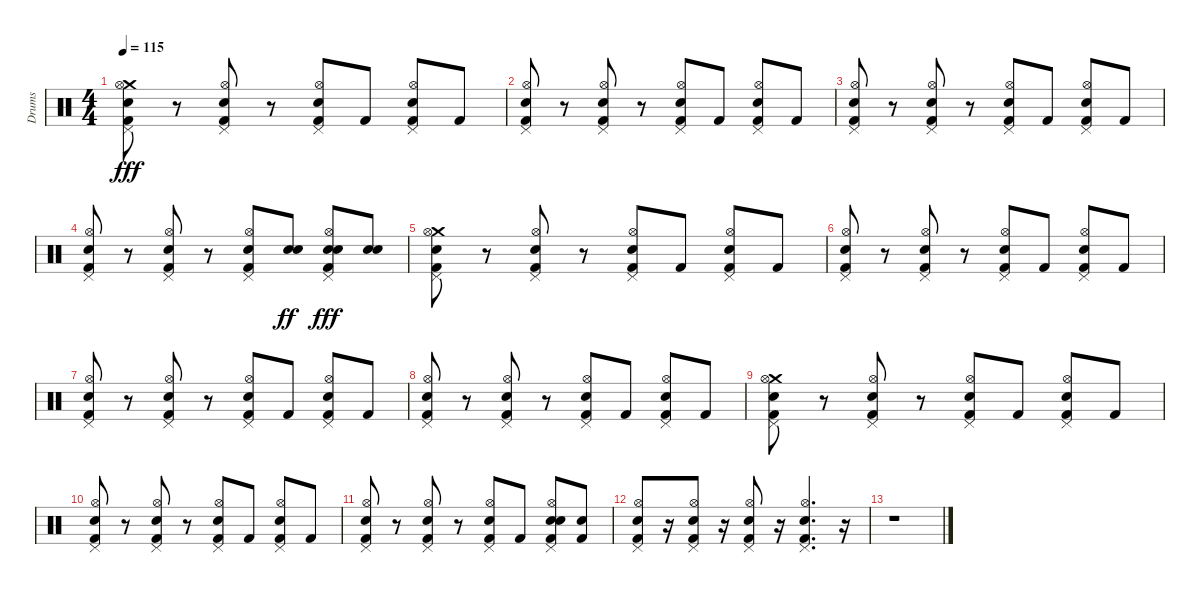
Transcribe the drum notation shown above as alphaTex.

\track ("Drums" "Drums") {instrument percussion}
\staff {score}
\articulation defaults
\ts (4 4)
\tempo 115
\clef neutral
\ks c
("Crash medium (hit)" "Pedal Hi-Hat (hit)" "Hi-Hat (open)" "Kick (hit) 2" "Snare (hit) 2").8{dy fff} r.8 ("Pedal Hi-Hat (hit)" "Hi-Hat (open)" "Kick (hit) 2" "Snare (hit) 2").8 r.8 ("Pedal Hi-Hat (hit)" "Hi-Hat (open)" "Kick (hit) 2" "Snare (hit) 2").8 "Kick (hit) 2".8 ("Pedal Hi-Hat (hit)" "Hi-Hat (open)" "Kick (hit) 2" "Snare (hit) 2").8 "Kick (hit) 2".8 |
("Pedal Hi-Hat (hit)" "Hi-Hat (open)" "Kick (hit) 2" "Snare (hit) 2").8 r.8 ("Pedal Hi-Hat (hit)" "Hi-Hat (open)" "Kick (hit) 2" "Snare (hit) 2").8 r.8 ("Pedal Hi-Hat (hit)" "Hi-Hat (open)" "Kick (hit) 2" "Snare (hit) 2").8 "Kick (hit) 2".8 ("Pedal Hi-Hat (hit)" "Hi-Hat (open)" "Kick (hit) 2" "Snare (hit) 2").8 "Kick (hit) 2".8 |
("Pedal Hi-Hat (hit)" "Hi-Hat (open)" "Kick (hit) 2" "Snare (hit) 2").8 r.8 ("Pedal Hi-Hat (hit)" "Hi-Hat (open)" "Kick (hit) 2" "Snare (hit) 2").8 r.8 ("Pedal Hi-Hat (hit)" "Hi-Hat (open)" "Kick (hit) 2" "Snare (hit) 2").8 "Kick (hit) 2".8 ("Pedal Hi-Hat (hit)" "Hi-Hat (open)" "Kick (hit) 2" "Snare (hit) 2").8 "Kick (hit) 2".8 |
("Hi-Hat (open)" "Snare (hit) 2" "Kick (hit) 2" "Pedal Hi-Hat (hit)").8 r.8 ("Hi-Hat (open)" "Kick (hit) 2" "Snare (hit) 2" "Pedal Hi-Hat (hit)").8 r.8 ("Hi-Hat (open)" "Kick (hit) 2" "Pedal Hi-Hat (hit)" "Snare (hit) 2").8{volume 4} ("Snare (hit) 2" "Snare (hit) 2").8{dy ff volume 9} ("Snare (hit) 2" "Hi-Hat (open)" "Kick (hit) 2" "Pedal Hi-Hat (hit)" "Snare (hit) 2").8{dy fff volume 10} ("Snare (hit) 2" "Snare (hit) 2").8{volume 12} |
("Crash medium (hit)" "Pedal Hi-Hat (hit)" "Hi-Hat (open)" "Kick (hit) 2" "Snare (hit) 2").8 r.8 ("Pedal Hi-Hat (hit)" "Hi-Hat (open)" "Kick (hit) 2" "Snare (hit) 2").8 r.8 ("Pedal Hi-Hat (hit)" "Hi-Hat (open)" "Kick (hit) 2" "Snare (hit) 2").8 "Kick (hit) 2".8 ("Pedal Hi-Hat (hit)" "Hi-Hat (open)" "Kick (hit) 2" "Snare (hit) 2").8 "Kick (hit) 2".8 |
("Pedal Hi-Hat (hit)" "Hi-Hat (open)" "Kick (hit) 2" "Snare (hit) 2").8 r.8 ("Pedal Hi-Hat (hit)" "Hi-Hat (open)" "Kick (hit) 2" "Snare (hit) 2").8 r.8 ("Pedal Hi-Hat (hit)" "Hi-Hat (open)" "Kick (hit) 2" "Snare (hit) 2").8 "Kick (hit) 2".8 ("Pedal Hi-Hat (hit)" "Hi-Hat (open)" "Kick (hit) 2" "Snare (hit) 2").8 "Kick (hit) 2".8 |
("Pedal Hi-Hat (hit)" "Hi-Hat (open)" "Kick (hit) 2" "Snare (hit) 2").8 r.8 ("Pedal Hi-Hat (hit)" "Hi-Hat (open)" "Kick (hit) 2" "Snare (hit) 2").8 r.8 ("Pedal Hi-Hat (hit)" "Hi-Hat (open)" "Kick (hit) 2" "Snare (hit) 2").8 "Kick (hit) 2".8 ("Pedal Hi-Hat (hit)" "Hi-Hat (open)" "Kick (hit) 2" "Snare (hit) 2").8 "Kick (hit) 2".8 |
("Pedal Hi-Hat (hit)" "Hi-Hat (open)" "Kick (hit) 2" "Snare (hit) 2").8 r.8 ("Pedal Hi-Hat (hit)" "Hi-Hat (open)" "Kick (hit) 2" "Snare (hit) 2").8 r.8 ("Pedal Hi-Hat (hit)" "Hi-Hat (open)" "Kick (hit) 2" "Snare (hit) 2").8 "Kick (hit) 2".8 ("Pedal Hi-Hat (hit)" "Hi-Hat (open)" "Kick (hit) 2" "Snare (hit) 2").8 "Kick (hit) 2".8 |
("Crash medium (hit)" "Pedal Hi-Hat (hit)" "Hi-Hat (open)" "Kick (hit) 2" "Snare (hit) 2").8 r.8 ("Pedal Hi-Hat (hit)" "Hi-Hat (open)" "Kick (hit) 2" "Snare (hit) 2").8 r.8 ("Pedal Hi-Hat (hit)" "Hi-Hat (open)" "Kick (hit) 2" "Snare (hit) 2").8 "Kick (hit) 2".8 ("Pedal Hi-Hat (hit)" "Hi-Hat (open)" "Kick (hit) 2" "Snare (hit) 2").8 "Kick (hit) 2".8 |
("Pedal Hi-Hat (hit)" "Hi-Hat (open)" "Kick (hit) 2" "Snare (hit) 2").8 r.8 ("Pedal Hi-Hat (hit)" "Hi-Hat (open)" "Kick (hit) 2" "Snare (hit) 2").8 r.8 ("Pedal Hi-Hat (hit)" "Hi-Hat (open)" "Kick (hit) 2" "Snare (hit) 2").8 "Kick (hit) 2".8 ("Pedal Hi-Hat (hit)" "Hi-Hat (open)" "Kick (hit) 2" "Snare (hit) 2").8 "Kick (hit) 2".8 |
("Pedal Hi-Hat (hit)" "Hi-Hat (open)" "Kick (hit) 2" "Snare (hit) 2").8 r.8 ("Pedal Hi-Hat (hit)" "Hi-Hat (open)" "Kick (hit) 2" "Snare (hit) 2").8 r.8 ("Pedal Hi-Hat (hit)" "Hi-Hat (open)" "Kick (hit) 2" "Snare (hit) 2").8 "Kick (hit) 2".8 ("Snare (hit) 2" "Pedal Hi-Hat (hit)" "Hi-Hat (open)" "Kick (hit) 2" "Snare (hit) 2").8 ("Snare (hit) 2" "Kick (hit) 2").8 |
("Hi-Hat (open)" "Pedal Hi-Hat (hit)" "Kick (hit) 2" "Snare (hit) 2").8 r.16 ("Hi-Hat (open)" "Pedal Hi-Hat (hit)" "Kick (hit) 2" "Snare (hit) 2").8 r.16 ("Hi-Hat (open)" "Pedal Hi-Hat (hit)" "Kick (hit) 2" "Snare (hit) 2").8 r.16 ("Hi-Hat (open)" "Pedal Hi-Hat (hit)" "Kick (hit) 2" "Snare (hit) 2").4{d} r.16 |
r.1
